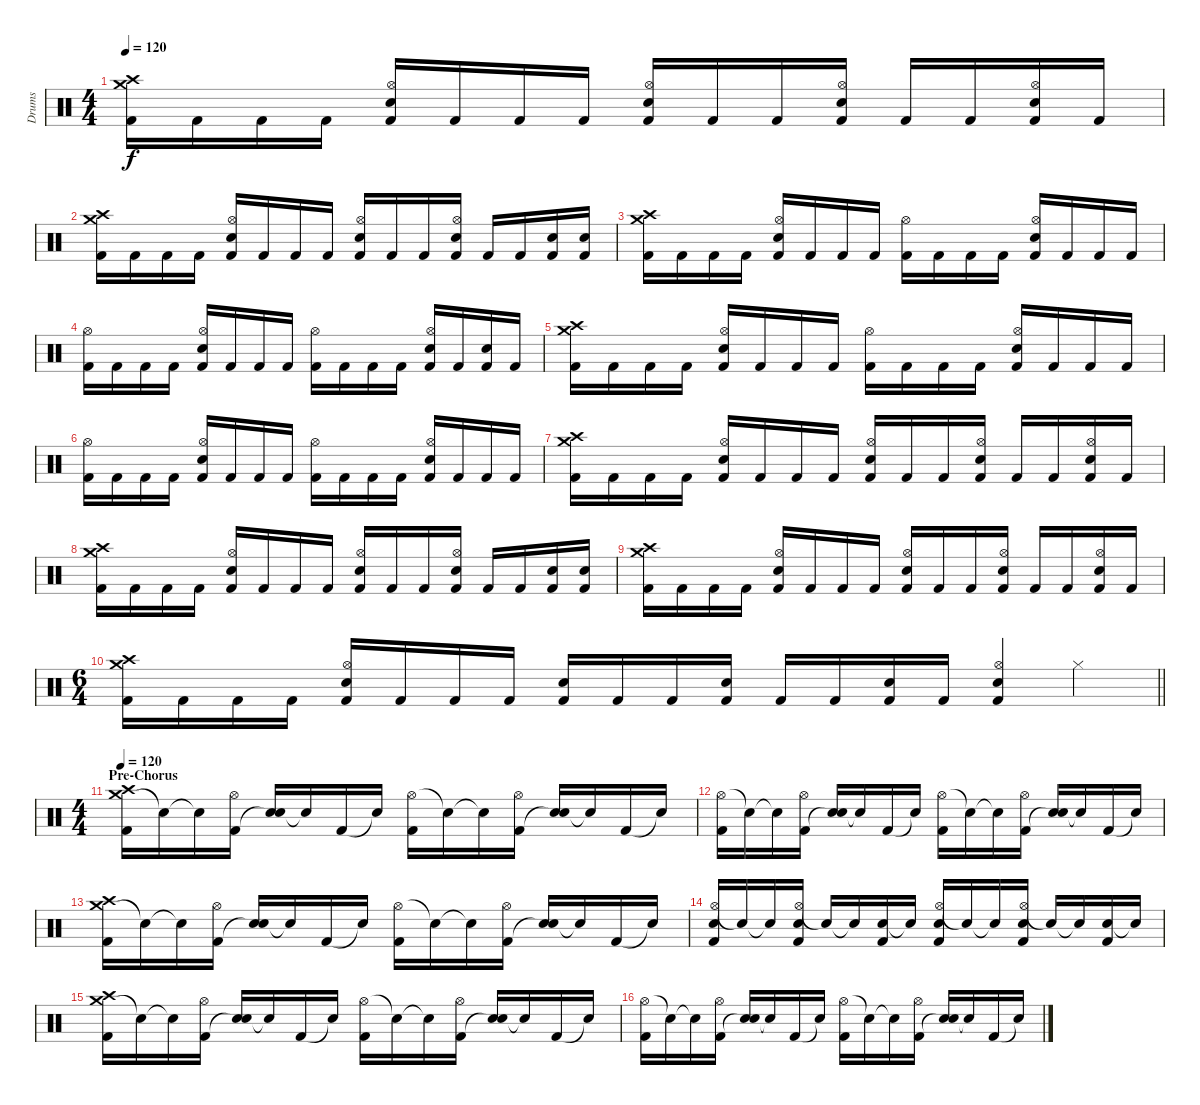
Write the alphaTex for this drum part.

\track ("Drums" "Drums") {instrument percussion}
\staff {score}
\articulation defaults
\ts (4 4)
\tempo 120
\clef neutral
\ks c
("Crash medium (hit)" "Crash high (hit)" "Kick (hit) 2").16{dy f} "Kick (hit) 2".16 "Kick (hit) 2".16 "Kick (hit) 2".16 ("Hi-Hat (open)" "Electric Snare (hit)" "Kick (hit) 2").16 "Kick (hit) 2".16 "Kick (hit) 2".16 "Kick (hit) 2".16 ("Hi-Hat (open)" "Electric Snare (hit)" "Kick (hit) 2").16 "Kick (hit) 2".16 "Kick (hit) 2".16 ("Hi-Hat (open)" "Electric Snare (hit)" "Kick (hit) 2").16 "Kick (hit) 2".16 "Kick (hit) 2".16 ("Hi-Hat (open)" "Electric Snare (hit)" "Kick (hit) 2").16 "Kick (hit) 2".16 |
("Crash medium (hit)" "Crash high (hit)" "Kick (hit) 2").16 "Kick (hit) 2".16 "Kick (hit) 2".16 "Kick (hit) 2".16 ("Hi-Hat (open)" "Electric Snare (hit)" "Kick (hit) 2").16 "Kick (hit) 2".16 "Kick (hit) 2".16 "Kick (hit) 2".16 ("Hi-Hat (open)" "Electric Snare (hit)" "Kick (hit) 2").16 "Kick (hit) 2".16 "Kick (hit) 2".16 ("Hi-Hat (open)" "Electric Snare (hit)" "Kick (hit) 2").16 "Kick (hit) 2".16 "Kick (hit) 2".16 ("Electric Snare (hit)" "Kick (hit) 2").16 ("Electric Snare (hit)" "Kick (hit) 2").16 |
("Crash medium (hit)" "Crash high (hit)" "Kick (hit) 2").16 "Kick (hit) 2".16 "Kick (hit) 2".16 "Kick (hit) 2".16 ("Hi-Hat (open)" "Electric Snare (hit)" "Kick (hit) 2").16 "Kick (hit) 2".16 "Kick (hit) 2".16 "Kick (hit) 2".16 ("Hi-Hat (open)" "Kick (hit) 2").16 "Kick (hit) 2".16 "Kick (hit) 2".16 "Kick (hit) 2".16 ("Hi-Hat (open)" "Electric Snare (hit)" "Kick (hit) 2").16 "Kick (hit) 2".16 "Kick (hit) 2".16 "Kick (hit) 2".16 |
("Hi-Hat (open)" "Kick (hit) 2").16 "Kick (hit) 2".16 "Kick (hit) 2".16 "Kick (hit) 2".16 ("Hi-Hat (open)" "Electric Snare (hit)" "Kick (hit) 2").16 "Kick (hit) 2".16 "Kick (hit) 2".16 "Kick (hit) 2".16 ("Hi-Hat (open)" "Kick (hit) 2").16 "Kick (hit) 2".16 "Kick (hit) 2".16 "Kick (hit) 2".16 ("Hi-Hat (open)" "Electric Snare (hit)" "Kick (hit) 2").16 "Kick (hit) 2".16 ("Electric Snare (hit)" "Kick (hit) 2").16 "Kick (hit) 2".16 |
("Crash medium (hit)" "Crash high (hit)" "Kick (hit) 2").16 "Kick (hit) 2".16 "Kick (hit) 2".16 "Kick (hit) 2".16 ("Hi-Hat (open)" "Electric Snare (hit)" "Kick (hit) 2").16 "Kick (hit) 2".16 "Kick (hit) 2".16 "Kick (hit) 2".16 ("Hi-Hat (open)" "Kick (hit) 2").16 "Kick (hit) 2".16 "Kick (hit) 2".16 "Kick (hit) 2".16 ("Hi-Hat (open)" "Electric Snare (hit)" "Kick (hit) 2").16 "Kick (hit) 2".16 "Kick (hit) 2".16 "Kick (hit) 2".16 |
("Hi-Hat (open)" "Kick (hit) 2").16 "Kick (hit) 2".16 "Kick (hit) 2".16 "Kick (hit) 2".16 ("Hi-Hat (open)" "Electric Snare (hit)" "Kick (hit) 2").16 "Kick (hit) 2".16 "Kick (hit) 2".16 "Kick (hit) 2".16 ("Hi-Hat (open)" "Kick (hit) 2").16 "Kick (hit) 2".16 "Kick (hit) 2".16 "Kick (hit) 2".16 ("Hi-Hat (open)" "Electric Snare (hit)" "Kick (hit) 2").16 "Kick (hit) 2".16 "Kick (hit) 2".16 "Kick (hit) 2".16 |
("Crash medium (hit)" "Crash high (hit)" "Kick (hit) 2").16 "Kick (hit) 2".16 "Kick (hit) 2".16 "Kick (hit) 2".16 ("Hi-Hat (open)" "Electric Snare (hit)" "Kick (hit) 2").16 "Kick (hit) 2".16 "Kick (hit) 2".16 "Kick (hit) 2".16 ("Hi-Hat (open)" "Electric Snare (hit)" "Kick (hit) 2").16 "Kick (hit) 2".16 "Kick (hit) 2".16 ("Hi-Hat (open)" "Electric Snare (hit)" "Kick (hit) 2").16 "Kick (hit) 2".16 "Kick (hit) 2".16 ("Hi-Hat (open)" "Electric Snare (hit)" "Kick (hit) 2").16 "Kick (hit) 2".16 |
("Crash medium (hit)" "Crash high (hit)" "Kick (hit) 2").16 "Kick (hit) 2".16 "Kick (hit) 2".16 "Kick (hit) 2".16 ("Hi-Hat (open)" "Electric Snare (hit)" "Kick (hit) 2").16 "Kick (hit) 2".16 "Kick (hit) 2".16 "Kick (hit) 2".16 ("Hi-Hat (open)" "Electric Snare (hit)" "Kick (hit) 2").16 "Kick (hit) 2".16 "Kick (hit) 2".16 ("Hi-Hat (open)" "Electric Snare (hit)" "Kick (hit) 2").16 "Kick (hit) 2".16 "Kick (hit) 2".16 ("Electric Snare (hit)" "Kick (hit) 2").16 ("Electric Snare (hit)" "Kick (hit) 2").16 |
("Crash medium (hit)" "Crash high (hit)" "Kick (hit) 2").16 "Kick (hit) 2".16 "Kick (hit) 2".16 "Kick (hit) 2".16 ("Hi-Hat (open)" "Electric Snare (hit)" "Kick (hit) 2").16 "Kick (hit) 2".16 "Kick (hit) 2".16 "Kick (hit) 2".16 ("Hi-Hat (open)" "Electric Snare (hit)" "Kick (hit) 2").16 "Kick (hit) 2".16 "Kick (hit) 2".16 ("Hi-Hat (open)" "Electric Snare (hit)" "Kick (hit) 2").16 "Kick (hit) 2".16 "Kick (hit) 2".16 ("Hi-Hat (open)" "Electric Snare (hit)" "Kick (hit) 2").16 "Kick (hit) 2".16 |
\ts (6 4)
\barLineRight lightlight
("Crash medium (hit)" "Crash high (hit)" "Kick (hit) 2").16 "Kick (hit) 2".16 "Kick (hit) 2".16 "Kick (hit) 2".16 ("Hi-Hat (open)" "Electric Snare (hit)" "Kick (hit) 2").16 "Kick (hit) 2".16 "Kick (hit) 2".16 "Kick (hit) 2".16 ("Electric Snare (hit)" "Kick (hit) 2").16 "Kick (hit) 2".16 "Kick (hit) 2".16 ("Electric Snare (hit)" "Kick (hit) 2").16 "Kick (hit) 2".16 "Kick (hit) 2".16 ("Electric Snare (hit)" "Kick (hit) 2").16 "Kick (hit) 2".16 ("Hi-Hat (open)" "Electric Snare (hit)" "Kick (hit) 2").4 "Hi-Hat (closed)"{x}.4 |
\ts (4 4)
\section ("" "Pre-Chorus")
\tempo 120
("Crash medium (hit)" "Crash high (hit)" "Kick (hit) 2").16 "Snare (hit)"{t}.16 "Snare (hit)"{t}.16 ("Hi-Hat (open)" "Kick (hit) 2").16 ("Electric Snare (hit)" "Snare (hit)"{t}).16 "Snare (hit)"{t}.16 "Kick (hit) 2".16 "Snare (hit)"{t}.16 ("Hi-Hat (open)" "Kick (hit) 2").16 "Snare (hit)"{t}.16 "Snare (hit)"{t}.16 ("Hi-Hat (open)" "Kick (hit) 2").16 ("Electric Snare (hit)" "Snare (hit)"{t}).16 "Snare (hit)"{t}.16 "Kick (hit) 2".16 "Snare (hit)"{t}.16 |
("Hi-Hat (open)" "Kick (hit) 2").16 "Snare (hit)"{t}.16 "Snare (hit)"{t}.16 ("Hi-Hat (open)" "Kick (hit) 2").16 ("Electric Snare (hit)" "Snare (hit)"{t}).16 "Snare (hit)"{t}.16 "Kick (hit) 2".16 "Snare (hit)"{t}.16 ("Hi-Hat (open)" "Kick (hit) 2").16 "Snare (hit)"{t}.16 "Snare (hit)"{t}.16 ("Hi-Hat (open)" "Kick (hit) 2").16 ("Electric Snare (hit)" "Snare (hit)"{t}).16 "Snare (hit)"{t}.16 "Kick (hit) 2".16 "Snare (hit)"{t}.16 |
("Crash medium (hit)" "Crash high (hit)" "Kick (hit) 2").16 "Snare (hit)"{t}.16 "Snare (hit)"{t}.16 ("Hi-Hat (open)" "Kick (hit) 2").16 ("Electric Snare (hit)" "Snare (hit)"{t}).16 "Snare (hit)"{t}.16 "Kick (hit) 2".16 "Snare (hit)"{t}.16 ("Hi-Hat (open)" "Kick (hit) 2").16 "Snare (hit)"{t}.16 "Snare (hit)"{t}.16 ("Hi-Hat (open)" "Kick (hit) 2").16 ("Electric Snare (hit)" "Snare (hit)"{t}).16 "Snare (hit)"{t}.16 "Kick (hit) 2".16 "Snare (hit)"{t}.16 |
("Hi-Hat (open)" "Electric Snare (hit)" "Kick (hit) 2").16 "Snare (hit)"{t}.16 "Snare (hit)"{t}.16 ("Hi-Hat (open)" "Electric Snare (hit)" "Kick (hit) 2").16 "Snare (hit)"{t}.16 "Snare (hit)"{t}.16 ("Electric Snare (hit)" "Kick (hit) 2").16 "Snare (hit)"{t}.16 ("Hi-Hat (open)" "Electric Snare (hit)" "Kick (hit) 2").16 "Snare (hit)"{t}.16 "Snare (hit)"{t}.16 ("Hi-Hat (open)" "Electric Snare (hit)" "Kick (hit) 2").16 "Snare (hit)"{t}.16 "Snare (hit)"{t}.16 ("Electric Snare (hit)" "Kick (hit) 2").16 "Snare (hit)"{t}.16 |
("Crash medium (hit)" "Crash high (hit)" "Kick (hit) 2").16 "Snare (hit)"{t}.16 "Snare (hit)"{t}.16 ("Hi-Hat (open)" "Kick (hit) 2").16 ("Electric Snare (hit)" "Snare (hit)"{t}).16 "Snare (hit)"{t}.16 "Kick (hit) 2".16 "Snare (hit)"{t}.16 ("Hi-Hat (open)" "Kick (hit) 2").16 "Snare (hit)"{t}.16 "Snare (hit)"{t}.16 ("Hi-Hat (open)" "Kick (hit) 2").16 ("Electric Snare (hit)" "Snare (hit)"{t}).16 "Snare (hit)"{t}.16 "Kick (hit) 2".16 "Snare (hit)"{t}.16 |
("Hi-Hat (open)" "Kick (hit) 2").16 "Snare (hit)"{t}.16 "Snare (hit)"{t}.16 ("Hi-Hat (open)" "Kick (hit) 2").16 ("Electric Snare (hit)" "Snare (hit)"{t}).16 "Snare (hit)"{t}.16 "Kick (hit) 2".16 "Snare (hit)"{t}.16 ("Hi-Hat (open)" "Kick (hit) 2").16 "Snare (hit)"{t}.16 "Snare (hit)"{t}.16 ("Hi-Hat (open)" "Kick (hit) 2").16 ("Electric Snare (hit)" "Snare (hit)"{t}).16 "Snare (hit)"{t}.16 "Kick (hit) 2".16 "Snare (hit)"{t}.16
